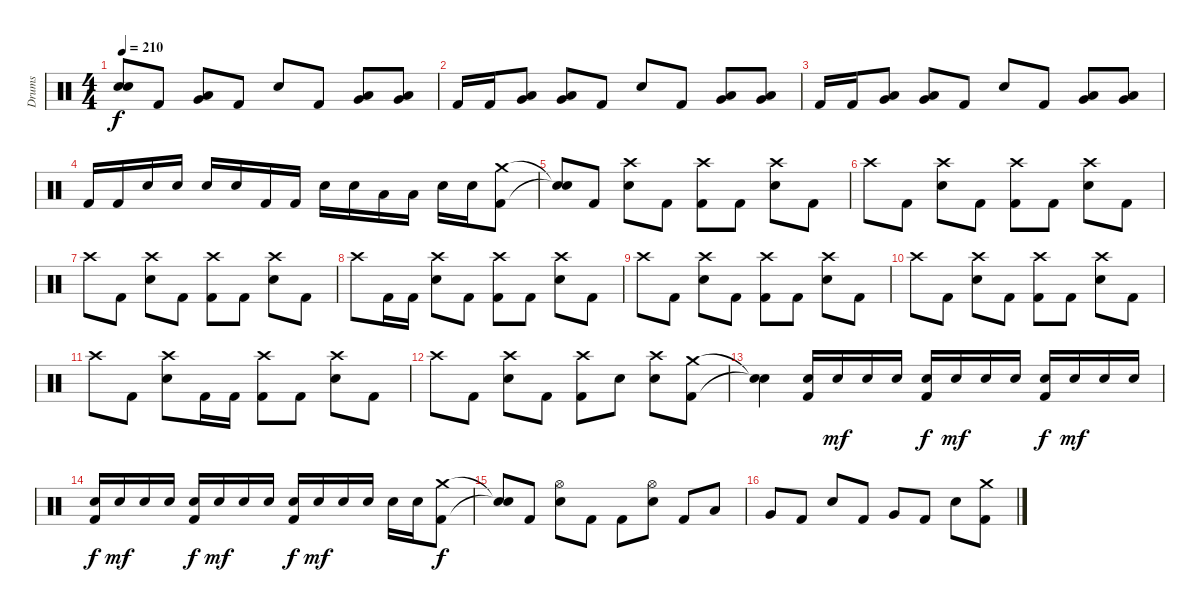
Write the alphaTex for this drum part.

\track ("Drums" "Drums") {instrument percussion}
\staff {score}
\articulation defaults
\ts (4 4)
\tempo 210
\clef neutral
\ks c
("Snare (hit)"{t} "Snare (hit)"{t}).8{dy f} "Kick (hit) 2".8 ("Low Tom (hit)" "Very Low Tom (hit)").8 "Kick (hit) 2".8 "Electric Snare (hit)".8 "Kick (hit) 2".8 ("Low Tom (hit)" "Very Low Tom (hit)").8 ("Low Tom (hit)" "Very Low Tom (hit)").8 |
"Kick (hit) 2".16 "Kick (hit) 2".16 ("Low Tom (hit)" "Very Low Tom (hit)").8 ("Low Tom (hit)" "Very Low Tom (hit)").8 "Kick (hit) 2".8 "Electric Snare (hit)".8 "Kick (hit) 2".8 ("Low Tom (hit)" "Very Low Tom (hit)").8 ("Low Tom (hit)" "Very Low Tom (hit)").8 |
"Kick (hit) 2".16 "Kick (hit) 2".16 ("Low Tom (hit)" "Very Low Tom (hit)").8 ("Low Tom (hit)" "Very Low Tom (hit)").8 "Kick (hit) 2".8 "Electric Snare (hit)".8 "Kick (hit) 2".8 ("Low Tom (hit)" "Very Low Tom (hit)").8 ("Low Tom (hit)" "Very Low Tom (hit)").8 |
"Kick (hit) 2".16 "Kick (hit) 2".16 "Electric Snare (hit)".16 "Electric Snare (hit)".16 "Electric Snare (hit)".16 "Electric Snare (hit)".16 "Kick (hit) 2".16 "Kick (hit) 2".16 "Electric Snare (hit)".16 "Electric Snare (hit)".16 "Low Tom (hit)".16 "Low Tom (hit)".16 "Electric Snare (hit)".16 "Electric Snare (hit)".16 ("Crash medium (hit)" "Kick (hit) 2").8 |
("Snare (hit)"{t} "Snare (hit)"{t}).8 "Kick (hit) 2".8 ("Crash high (hit)" "Electric Snare (hit)").8 "Kick (hit) 2".8 ("Crash high (hit)" "Kick (hit) 2").8 "Kick (hit) 2".8 ("Crash high (hit)" "Electric Snare (hit)").8 "Kick (hit) 2".8 |
"Crash high (hit)".8 "Kick (hit) 2".8 ("Crash high (hit)" "Electric Snare (hit)").8 "Kick (hit) 2".8 ("Crash high (hit)" "Kick (hit) 2").8 "Kick (hit) 2".8 ("Crash high (hit)" "Electric Snare (hit)").8 "Kick (hit) 2".8 |
"Crash high (hit)".8 "Kick (hit) 2".8 ("Crash high (hit)" "Electric Snare (hit)").8 "Kick (hit) 2".8 ("Crash high (hit)" "Kick (hit) 2").8 "Kick (hit) 2".8 ("Crash high (hit)" "Electric Snare (hit)").8 "Kick (hit) 2".8 |
"Crash high (hit)".8 "Kick (hit) 2".16 "Kick (hit) 2".16 ("Crash high (hit)" "Electric Snare (hit)").8 "Kick (hit) 2".8 ("Crash high (hit)" "Kick (hit) 2").8 "Kick (hit) 2".8 ("Crash high (hit)" "Electric Snare (hit)").8 "Kick (hit) 2".8 |
"Crash high (hit)".8 "Kick (hit) 2".8 ("Crash high (hit)" "Electric Snare (hit)").8 "Kick (hit) 2".8 ("Crash high (hit)" "Kick (hit) 2").8 "Kick (hit) 2".8 ("Crash high (hit)" "Electric Snare (hit)").8 "Kick (hit) 2".8 |
"Crash high (hit)".8 "Kick (hit) 2".8 ("Crash high (hit)" "Electric Snare (hit)").8 "Kick (hit) 2".8 ("Crash high (hit)" "Kick (hit) 2").8 "Kick (hit) 2".8 ("Crash high (hit)" "Electric Snare (hit)").8 "Kick (hit) 2".8 |
"Crash high (hit)".8 "Kick (hit) 2".8 ("Crash high (hit)" "Electric Snare (hit)").8 "Kick (hit) 2".16 "Kick (hit) 2".16 ("Crash high (hit)" "Kick (hit) 2").8 "Kick (hit) 2".8 ("Crash high (hit)" "Electric Snare (hit)").8 "Kick (hit) 2".8 |
"Crash high (hit)".8 "Kick (hit) 2".8 ("Crash high (hit)" "Electric Snare (hit)").8 "Kick (hit) 2".8 ("Crash high (hit)" "Kick (hit) 2").8 "Electric Snare (hit)".8 ("Crash high (hit)" "Electric Snare (hit)").8 ("Crash medium (hit)" "Kick (hit) 2").8 |
("Snare (hit)"{t} "Snare (hit)"{t}).4 ("Electric Snare (hit)" "Kick (hit) 2").16 "Electric Snare (hit)".16{dy mf} "Electric Snare (hit)".16 "Electric Snare (hit)".16 ("Electric Snare (hit)" "Kick (hit) 2").16{dy f} "Electric Snare (hit)".16{dy mf} "Electric Snare (hit)".16 "Electric Snare (hit)".16 ("Electric Snare (hit)" "Kick (hit) 2").16{dy f} "Electric Snare (hit)".16{dy mf} "Electric Snare (hit)".16 "Electric Snare (hit)".16 |
("Electric Snare (hit)" "Kick (hit) 2").16{dy f} "Electric Snare (hit)".16{dy mf} "Electric Snare (hit)".16 "Electric Snare (hit)".16 ("Electric Snare (hit)" "Kick (hit) 2").16{dy f} "Electric Snare (hit)".16{dy mf} "Electric Snare (hit)".16 "Electric Snare (hit)".16 ("Electric Snare (hit)" "Kick (hit) 2").16{dy f} "Electric Snare (hit)".16{dy mf} "Electric Snare (hit)".16 "Electric Snare (hit)".16 "Electric Snare (hit)".16 "Electric Snare (hit)".16 ("Crash medium (hit)" "Kick (hit) 2").8{dy f} |
("Snare (hit)"{t} "Snare (hit)"{t}).8 "Kick (hit) 2".8 ("Hi-Hat (open)" "Electric Snare (hit)").8 "Kick (hit) 2".8 "Kick (hit) 2".8 ("Hi-Hat (open)" "Electric Snare (hit)").8 "Kick (hit) 2".8 "Low Tom (hit)".8 |
"Very Low Tom (hit)".8 "Kick (hit) 2".8 "Electric Snare (hit)".8 "Kick (hit) 2".8 "Very Low Tom (hit)".8 "Kick (hit) 2".8 "Electric Snare (hit)".8 ("Crash medium (hit)" "Kick (hit) 2").8
